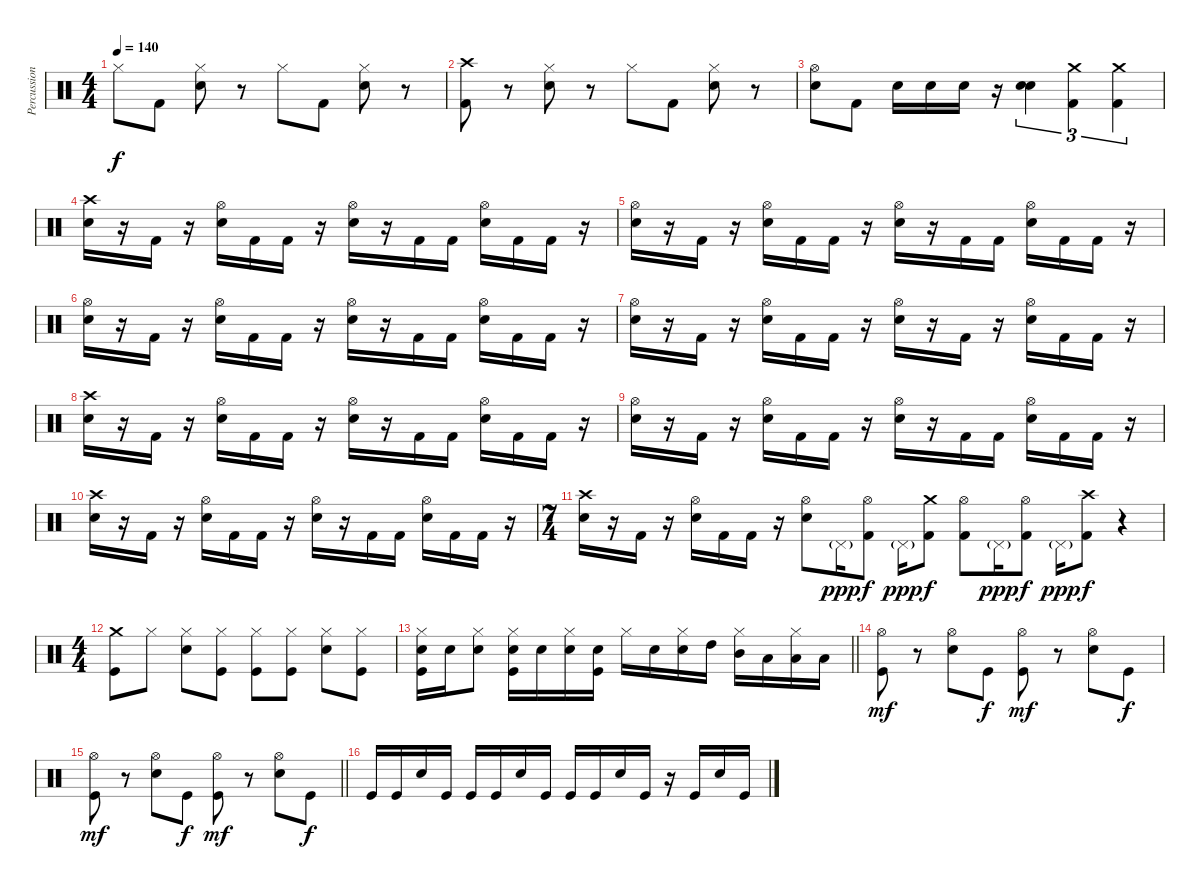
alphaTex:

\track ("Percussion(Satish)" "Percussion") {instrument percussion}
\staff {score}
\articulation defaults
\ts (4 4)
\tempo 140
\clef neutral
\ks c "Hi-Hat (closed)".8{dy f} "Kick (hit) 2".8
("Hi-Hat (closed)" "Snare (hit) 2").8 r.8 "Hi-Hat (closed)".8 "Kick (hit) 2".8 ("Hi-Hat (closed)" "Snare (hit) 2").8 r.8 |
("Crash high (hit)" "Kick (hit) 2").8 r.8 ("Hi-Hat (closed)" "Snare (hit) 2").8 r.8 "Hi-Hat (closed)".8 "Kick (hit) 2".8 ("Hi-Hat (closed)" "Snare (hit) 2").8 r.8 |
("Hi-Hat (open)" "Snare (hit) 2").8 "Kick (hit) 2".8 "Snare (hit) 2".16 "Snare (hit) 2".16 "Snare (hit) 2".16 r.16 ("Snare (hit) 2" "Snare (hit) 2").4{tu (3 2) bd 480} ("Crash medium (hit)" "Kick (hit) 2").4{tu (3 2)} ("Crash medium (hit)" "Kick (hit) 2").4{tu (3 2)} |
("Crash high (hit)" "Snare (hit) 2").16 r.16 "Kick (hit) 2".16 r.16 ("Hi-Hat (open)" "Snare (hit) 2").16 "Kick (hit) 2".16 "Kick (hit) 2".16 r.16 ("Hi-Hat (open)" "Snare (hit) 2").16 r.16 "Kick (hit) 2".16 "Kick (hit) 2".16 ("Hi-Hat (open)" "Snare (hit) 2").16 "Kick (hit) 2".16 "Kick (hit) 2".16 r.16 |
("Hi-Hat (open)" "Snare (hit) 2").16 r.16 "Kick (hit) 2".16 r.16 ("Hi-Hat (open)" "Snare (hit) 2").16 "Kick (hit) 2".16 "Kick (hit) 2".16 r.16 ("Hi-Hat (open)" "Snare (hit) 2").16 r.16 "Kick (hit) 2".16 "Kick (hit) 2".16 ("Hi-Hat (open)" "Snare (hit) 2").16 "Kick (hit) 2".16 "Kick (hit) 2".16 r.16 |
("Hi-Hat (open)" "Snare (hit) 2").16 r.16 "Kick (hit) 2".16 r.16 ("Hi-Hat (open)" "Snare (hit) 2").16 "Kick (hit) 2".16 "Kick (hit) 2".16 r.16 ("Hi-Hat (open)" "Snare (hit) 2").16 r.16 "Kick (hit) 2".16 "Kick (hit) 2".16 ("Hi-Hat (open)" "Snare (hit) 2").16 "Kick (hit) 2".16 "Kick (hit) 2".16 r.16 |
("Hi-Hat (open)" "Snare (hit) 2").16 r.16 "Kick (hit) 2".16 r.16 ("Hi-Hat (open)" "Snare (hit) 2").16 "Kick (hit) 2".16 "Kick (hit) 2".16 r.16 ("Hi-Hat (open)" "Snare (hit) 2").16 r.16 "Kick (hit) 2".16 r.16 ("Hi-Hat (open)" "Snare (hit) 2").16 "Kick (hit) 2".16 "Kick (hit) 2".16 r.16 |
("Crash high (hit)" "Snare (hit) 2").16 r.16 "Kick (hit) 2".16 r.16 ("Hi-Hat (open)" "Snare (hit) 2").16 "Kick (hit) 2".16 "Kick (hit) 2".16 r.16 ("Hi-Hat (open)" "Snare (hit) 2").16 r.16 "Kick (hit) 2".16 "Kick (hit) 2".16 ("Hi-Hat (open)" "Snare (hit) 2").16 "Kick (hit) 2".16 "Kick (hit) 2".16 r.16 |
("Hi-Hat (open)" "Snare (hit) 2").16 r.16 "Kick (hit) 2".16 r.16 ("Hi-Hat (open)" "Snare (hit) 2").16 "Kick (hit) 2".16 "Kick (hit) 2".16 r.16 ("Hi-Hat (open)" "Snare (hit) 2").16 r.16 "Kick (hit) 2".16 "Kick (hit) 2".16 ("Hi-Hat (open)" "Snare (hit) 2").16 "Kick (hit) 2".16 "Kick (hit) 2".16 r.16 |
("Crash high (hit)" "Snare (hit) 2").16 r.16 "Kick (hit) 2".16 r.16 ("Hi-Hat (open)" "Snare (hit) 2").16 "Kick (hit) 2".16 "Kick (hit) 2".16 r.16 ("Hi-Hat (open)" "Snare (hit) 2").16 r.16 "Kick (hit) 2".16 "Kick (hit) 2".16 ("Hi-Hat (open)" "Snare (hit) 2").16 "Kick (hit) 2".16 "Kick (hit) 2".16 r.16 |
\ts (7 4)
("Crash high (hit)" "Snare (hit) 2").16 r.16 "Kick (hit) 2".16 r.16 ("Hi-Hat (open)" "Snare (hit) 2").16 "Kick (hit) 2".16 "Kick (hit) 2".16 r.16 ("Hi-Hat (open)" "Snare (hit) 2").8 "Pedal Hi-Hat (hit)"{g}.16{dy ppp} ("Hi-Hat (open)" "Kick (hit) 2").8{dy f} "Pedal Hi-Hat (hit)"{g}.16{dy ppp} ("Crash medium (hit)" "Kick (hit) 2").8{dy f} ("Hi-Hat (open)" "Kick (hit) 2").8 "Pedal Hi-Hat (hit)"{g}.16{dy ppp} ("Hi-Hat (open)" "Kick (hit) 2").8{dy f} "Pedal Hi-Hat (hit)"{g}.16{dy ppp} ("Crash high (hit)" "Kick (hit) 2").8{dy f} r.4 |
\ts (4 4)
("Crash medium (hit)" "Kick (hit)").8 "Hi-Hat (closed)".8 ("Hi-Hat (closed)" "Electric Snare (hit)").8 ("Hi-Hat (closed)" "Kick (hit)").8 ("Hi-Hat (closed)" "Kick (hit)").8 ("Hi-Hat (closed)" "Kick (hit)").8 ("Hi-Hat (closed)" "Electric Snare (hit)").8 ("Hi-Hat (closed)" "Kick (hit)").8 |
\barLineRight lightlight
("Hi-Hat (closed)" "Electric Snare (hit)" "Kick (hit)").16 "Electric Snare (hit)".16 ("Hi-Hat (closed)" "Electric Snare (hit)").8 ("Hi-Hat (closed)" "Electric Snare (hit)" "Kick (hit)").16 "Electric Snare (hit)".16 ("Hi-Hat (closed)" "Electric Snare (hit)").16 ("Electric Snare (hit)" "Kick (hit)").16 "Hi-Hat (closed)".16 "Electric Snare (hit)".16 ("Hi-Hat (closed)" "Electric Snare (hit)").16 "High Tom (hit)".16 ("Hi-Hat (closed)" "Mid Tom (hit)").16 "Low Tom (hit)".16 ("Hi-Hat (closed)" "Low Tom (hit)").16 "Low Tom (hit)".16 |
("Hi-Hat (open)" "Kick (hit)").8{dy mf} r.8 ("Hi-Hat (open)" "Electric Snare (hit)").8 "Kick (hit)".8{dy f} ("Hi-Hat (open)" "Kick (hit)").8{dy mf} r.8 ("Hi-Hat (open)" "Electric Snare (hit)").8 "Kick (hit)".8{dy f} |
\barLineRight lightlight
("Hi-Hat (open)" "Kick (hit)").8{dy mf} r.8 ("Hi-Hat (open)" "Electric Snare (hit)").8 "Kick (hit)".8{dy f} ("Hi-Hat (open)" "Kick (hit)").8{dy mf} r.8 ("Hi-Hat (open)" "Electric Snare (hit)").8 "Kick (hit)".8{dy f} |
"Kick (hit)".16 "Kick (hit)".16 "Electric Snare (hit)".16 "Kick (hit)".16 "Kick (hit)".16 "Kick (hit)".16 "Electric Snare (hit)".16 "Kick (hit)".16 "Kick (hit)".16 "Kick (hit)".16 "Electric Snare (hit)".16 "Kick (hit)".16 r.16 "Kick (hit)".16 "Electric Snare (hit)".16 "Kick (hit)".16
